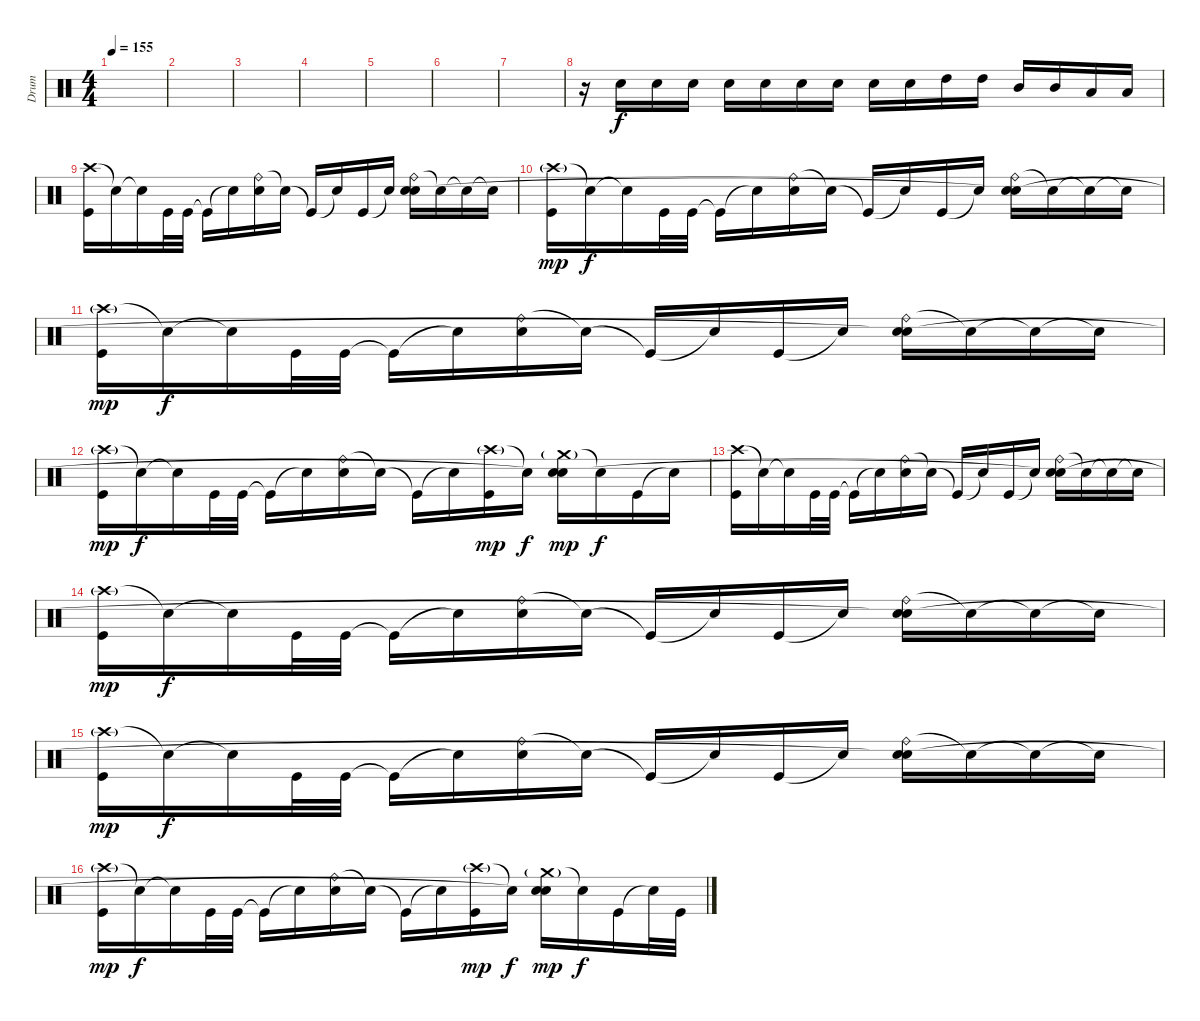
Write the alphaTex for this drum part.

\track ("Drum" "Drum") {instrument percussion}
\staff {score}
\articulation defaults
\ts (4 4)
\tempo 155
\clef neutral
\ks c
|
|
|
|
|
|
|
r.16 "Electric Snare (hit)".16 "Electric Snare (hit)".16 "Electric Snare (hit)".16 "Electric Snare (hit)".16 "Electric Snare (hit)".16 "Electric Snare (hit)".16 "Electric Snare (hit)".16 "Electric Snare (hit)".16 "Electric Snare (hit)".16 "High Tom (hit)".16 "High Tom (hit)".16 "Mid Tom (hit)".16 "Mid Tom (hit)".16 "Low Tom (hit)".16 "Low Tom (hit)".16 |
("Crash high (hit)" "Kick (hit)").16 "Snare (hit)"{t}.16 "Snare (hit)"{t}.16 "Kick (hit)".32 "Kick (hit)".32 "Kick (hit)"{t}.16 "Snare (hit)"{t}.16 ("Ride (bell)" "Electric Snare (hit)").16 "Snare (hit)"{t}.16 "Kick (hit)"{t}.16 "Snare (hit)"{t}.16 "Kick (hit)".16 "Snare (hit)"{t}.16 ("Ride (bell)" "Electric Snare (hit)" "Snare (hit)").16 "Snare (hit)"{t}.16 "Snare (hit)"{t}.16 "Snare (hit)"{t}.16 |
("Crash high (hit)"{g} "Kick (hit)").16{dy mp} "Snare (hit)"{t}.16{dy f} "Snare (hit)"{t}.16 "Kick (hit)".32 "Kick (hit)".32 "Kick (hit)"{t}.16 "Snare (hit)"{t}.16 ("Ride (bell)" "Electric Snare (hit)").16 "Snare (hit)"{t}.16 "Kick (hit)"{t}.16 "Snare (hit)"{t}.16 "Kick (hit)".16 "Snare (hit)"{t}.16 ("Ride (bell)" "Electric Snare (hit)" "Snare (hit)"{t}).16 "Snare (hit)"{t}.16 "Snare (hit)"{t}.16 "Snare (hit)"{t}.16 |
("Crash high (hit)"{g} "Kick (hit)").16{dy mp} "Snare (hit)"{t}.16{dy f} "Snare (hit)"{t}.16 "Kick (hit)".32 "Kick (hit)".32 "Kick (hit)"{t}.16 "Snare (hit)"{t}.16 ("Ride (bell)" "Electric Snare (hit)").16 "Snare (hit)"{t}.16 "Kick (hit)"{t}.16 "Snare (hit)"{t}.16 "Kick (hit)".16 "Snare (hit)"{t}.16 ("Ride (bell)" "Electric Snare (hit)" "Snare (hit)"{t}).16 "Snare (hit)"{t}.16 "Snare (hit)"{t}.16 "Snare (hit)"{t}.16 |
("Crash high (hit)"{g} "Kick (hit)").16{dy mp} "Snare (hit)"{t}.16{dy f} "Snare (hit)"{t}.16 "Kick (hit)".32 "Kick (hit)".32 "Kick (hit)"{t}.16 "Snare (hit)"{t}.16 ("Ride (bell)" "Electric Snare (hit)").16 "Snare (hit)"{t}.16 "Kick (hit)"{t}.16 "Snare (hit)"{t}.16 ("Crash high (hit)"{g} "Kick (hit)").16{dy mp} "Snare (hit)"{t}.16{dy f} ("Crash medium (hit)"{g} "Electric Snare (hit)" "Snare (hit)"{t}).16{dy mp} "Snare (hit)"{t}.16{dy f} "Kick (hit)".16 "Snare (hit)"{t}.16 |
("Crash high (hit)" "Kick (hit)").16 "Snare (hit)"{t}.16 "Snare (hit)"{t}.16 "Kick (hit)".32 "Kick (hit)".32 "Kick (hit)"{t}.16 "Snare (hit)"{t}.16 ("Ride (bell)" "Electric Snare (hit)").16 "Snare (hit)"{t}.16 "Kick (hit)"{t}.16 "Snare (hit)"{t}.16 "Kick (hit)".16 "Snare (hit)"{t}.16 ("Ride (bell)" "Electric Snare (hit)" "Snare (hit)"{t}).16 "Snare (hit)"{t}.16 "Snare (hit)"{t}.16 "Snare (hit)"{t}.16 |
("Crash high (hit)"{g} "Kick (hit)").16{dy mp} "Snare (hit)"{t}.16{dy f} "Snare (hit)"{t}.16 "Kick (hit)".32 "Kick (hit)".32 "Kick (hit)"{t}.16 "Snare (hit)"{t}.16 ("Ride (bell)" "Electric Snare (hit)").16 "Snare (hit)"{t}.16 "Kick (hit)"{t}.16 "Snare (hit)"{t}.16 "Kick (hit)".16 "Snare (hit)"{t}.16 ("Ride (bell)" "Electric Snare (hit)" "Snare (hit)"{t}).16 "Snare (hit)"{t}.16 "Snare (hit)"{t}.16 "Snare (hit)"{t}.16 |
("Crash high (hit)"{g} "Kick (hit)").16{dy mp} "Snare (hit)"{t}.16{dy f} "Snare (hit)"{t}.16 "Kick (hit)".32 "Kick (hit)".32 "Kick (hit)"{t}.16 "Snare (hit)"{t}.16 ("Ride (bell)" "Electric Snare (hit)").16 "Snare (hit)"{t}.16 "Kick (hit)"{t}.16 "Snare (hit)"{t}.16 "Kick (hit)".16 "Snare (hit)"{t}.16 ("Ride (bell)" "Electric Snare (hit)" "Snare (hit)"{t}).16 "Snare (hit)"{t}.16 "Snare (hit)"{t}.16 "Snare (hit)"{t}.16 |
("Crash high (hit)"{g} "Kick (hit)").16{dy mp} "Snare (hit)"{t}.16{dy f} "Snare (hit)"{t}.16 "Kick (hit)".32 "Kick (hit)".32 "Kick (hit)"{t}.16 "Snare (hit)"{t}.16 ("Ride (bell)" "Electric Snare (hit)").16 "Snare (hit)"{t}.16 "Kick (hit)"{t}.16 "Snare (hit)"{t}.16 ("Crash high (hit)"{g} "Kick (hit)").16{dy mp} "Snare (hit)"{t}.16{dy f} ("Crash medium (hit)"{g} "Electric Snare (hit)" "Snare (hit)"{t}).16{dy mp} "Snare (hit)"{t}.16{dy f} "Kick (hit)".16 "Snare (hit)"{t}.32 "Kick (hit)".32
